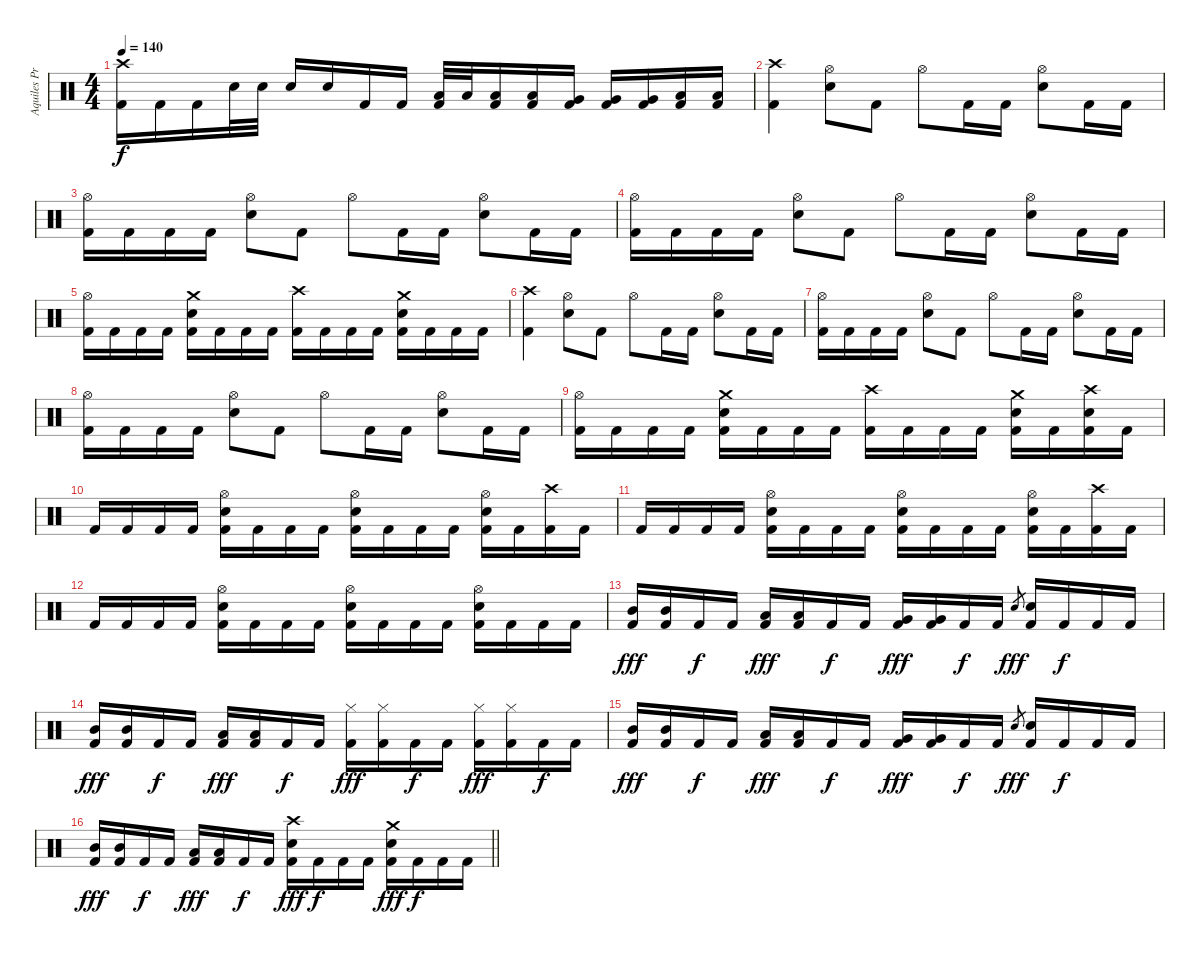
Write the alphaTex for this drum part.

\track ("Aquiles Priester" "Aquiles Pr") {instrument percussion}
\staff {score}
\articulation defaults
\ts (4 4)
\tempo 140
\clef neutral
\ks c
("Crash high (hit)" "Kick (hit) 2").16{dy f} "Kick (hit) 2".16 "Kick (hit) 2".16 "Electric Snare (hit)".32 "Electric Snare (hit)".32 "Electric Snare (hit)".16 "Electric Snare (hit)".16 "Kick (hit) 2".16 "Kick (hit) 2".16 ("Low Tom (hit)" "Kick (hit) 2").32 "Low Tom (hit)".32 ("Low Tom (hit)" "Kick (hit) 2").16 ("Low Tom (hit)" "Kick (hit) 2").16 ("Very Low Tom (hit)" "Kick (hit) 2").16 ("Very Low Tom (hit)" "Kick (hit) 2").16 ("Very Low Tom (hit)" "Kick (hit) 2").16 ("Low Floor Tom (hit)" "Kick (hit) 2").16 ("Low Floor Tom (hit)" "Kick (hit) 2").16 |
("Crash high (hit)" "Kick (hit) 2").4 ("Hi-Hat (open)" "Electric Snare (hit)").8 "Kick (hit) 2".8 "Hi-Hat (open)".8 "Kick (hit) 2".16 "Kick (hit) 2".16 ("Hi-Hat (open)" "Electric Snare (hit)").8 "Kick (hit) 2".16 "Kick (hit) 2".16 |
("Hi-Hat (open)" "Kick (hit) 2").16 "Kick (hit) 2".16 "Kick (hit) 2".16 "Kick (hit) 2".16 ("Hi-Hat (open)" "Electric Snare (hit)").8 "Kick (hit) 2".8 "Hi-Hat (open)".8 "Kick (hit) 2".16 "Kick (hit) 2".16 ("Hi-Hat (open)" "Electric Snare (hit)").8 "Kick (hit) 2".16 "Kick (hit) 2".16 |
("Hi-Hat (open)" "Kick (hit) 2").16 "Kick (hit) 2".16 "Kick (hit) 2".16 "Kick (hit) 2".16 ("Hi-Hat (open)" "Electric Snare (hit)").8 "Kick (hit) 2".8 "Hi-Hat (open)".8 "Kick (hit) 2".16 "Kick (hit) 2".16 ("Hi-Hat (open)" "Electric Snare (hit)").8 "Kick (hit) 2".16 "Kick (hit) 2".16 |
("Hi-Hat (open)" "Kick (hit) 2").16 "Kick (hit) 2".16 "Kick (hit) 2".16 "Kick (hit) 2".16 ("Crash medium (hit)" "Electric Snare (hit)" "Kick (hit) 2").16 "Kick (hit) 2".16 "Kick (hit) 2".16 "Kick (hit) 2".16 ("Crash high (hit)" "Kick (hit) 2").16 "Kick (hit) 2".16 "Kick (hit) 2".16 "Kick (hit) 2".16 ("Crash medium (hit)" "Electric Snare (hit)" "Kick (hit) 2").16 "Kick (hit) 2".16 "Kick (hit) 2".16 "Kick (hit) 2".16 |
("Crash high (hit)" "Kick (hit) 2").4 ("Hi-Hat (open)" "Electric Snare (hit)").8 "Kick (hit) 2".8 "Hi-Hat (open)".8 "Kick (hit) 2".16 "Kick (hit) 2".16 ("Hi-Hat (open)" "Electric Snare (hit)").8 "Kick (hit) 2".16 "Kick (hit) 2".16 |
("Hi-Hat (open)" "Kick (hit) 2").16 "Kick (hit) 2".16 "Kick (hit) 2".16 "Kick (hit) 2".16 ("Hi-Hat (open)" "Electric Snare (hit)").8 "Kick (hit) 2".8 "Hi-Hat (open)".8 "Kick (hit) 2".16 "Kick (hit) 2".16 ("Hi-Hat (open)" "Electric Snare (hit)").8 "Kick (hit) 2".16 "Kick (hit) 2".16 |
("Hi-Hat (open)" "Kick (hit) 2").16 "Kick (hit) 2".16 "Kick (hit) 2".16 "Kick (hit) 2".16 ("Hi-Hat (open)" "Electric Snare (hit)").8 "Kick (hit) 2".8 "Hi-Hat (open)".8 "Kick (hit) 2".16 "Kick (hit) 2".16 ("Hi-Hat (open)" "Electric Snare (hit)").8 "Kick (hit) 2".16 "Kick (hit) 2".16 |
("Hi-Hat (open)" "Kick (hit) 2").16 "Kick (hit) 2".16 "Kick (hit) 2".16 "Kick (hit) 2".16 ("Crash medium (hit)" "Electric Snare (hit)" "Kick (hit) 2").16 "Kick (hit) 2".16 "Kick (hit) 2".16 "Kick (hit) 2".16 ("Crash high (hit)" "Kick (hit) 2").16 "Kick (hit) 2".16 "Kick (hit) 2".16 "Kick (hit) 2".16 ("Crash medium (hit)" "Electric Snare (hit)" "Kick (hit) 2").16 "Kick (hit) 2".16 ("Crash high (hit)" "Electric Snare (hit)" "Kick (hit) 2").16 "Kick (hit) 2".16 |
"Kick (hit) 2".16 "Kick (hit) 2".16 "Kick (hit) 2".16 "Kick (hit) 2".16 ("Hi-Hat (open)" "Electric Snare (hit)" "Kick (hit) 2").16 "Kick (hit) 2".16 "Kick (hit) 2".16 "Kick (hit) 2".16 ("Hi-Hat (open)" "Electric Snare (hit)" "Kick (hit) 2").16 "Kick (hit) 2".16 "Kick (hit) 2".16 "Kick (hit) 2".16 ("Hi-Hat (open)" "Electric Snare (hit)" "Kick (hit) 2").16 "Kick (hit) 2".16 ("Crash high (hit)" "Kick (hit) 2").16 "Kick (hit) 2".16 |
"Kick (hit) 2".16 "Kick (hit) 2".16 "Kick (hit) 2".16 "Kick (hit) 2".16 ("Hi-Hat (open)" "Electric Snare (hit)" "Kick (hit) 2").16 "Kick (hit) 2".16 "Kick (hit) 2".16 "Kick (hit) 2".16 ("Hi-Hat (open)" "Electric Snare (hit)" "Kick (hit) 2").16 "Kick (hit) 2".16 "Kick (hit) 2".16 "Kick (hit) 2".16 ("Hi-Hat (open)" "Electric Snare (hit)" "Kick (hit) 2").16 "Kick (hit) 2".16 ("Crash high (hit)" "Kick (hit) 2").16 "Kick (hit) 2".16 |
"Kick (hit) 2".16 "Kick (hit) 2".16 "Kick (hit) 2".16 "Kick (hit) 2".16 ("Hi-Hat (open)" "Electric Snare (hit)" "Kick (hit) 2").16 "Kick (hit) 2".16 "Kick (hit) 2".16 "Kick (hit) 2".16 ("Hi-Hat (open)" "Electric Snare (hit)" "Kick (hit) 2").16 "Kick (hit) 2".16 "Kick (hit) 2".16 "Kick (hit) 2".16 ("Hi-Hat (open)" "Electric Snare (hit)" "Kick (hit) 2").16 "Kick (hit) 2".16 "Kick (hit) 2".16 "Kick (hit) 2".16 |
("Mid Tom (hit)" "Kick (hit) 2").16{dy fff} ("Mid Tom (hit)" "Kick (hit) 2").16 "Kick (hit) 2".16{dy f} "Kick (hit) 2".16 ("Low Tom (hit)" "Kick (hit) 2").16{dy fff} ("Low Tom (hit)" "Kick (hit) 2").16 "Kick (hit) 2".16{dy f} "Kick (hit) 2".16 ("Very Low Tom (hit)" "Kick (hit) 2").16{dy fff} ("Very Low Tom (hit)" "Kick (hit) 2").16 "Kick (hit) 2".16{dy f} "Kick (hit) 2".16 "Electric Snare (hit)".8{gr dy fff} ("Electric Snare (hit)" "Kick (hit) 2").16 "Kick (hit) 2".16{dy f} "Kick (hit) 2".16 "Kick (hit) 2".16 |
("Mid Tom (hit)" "Kick (hit) 2").16{dy fff} ("Mid Tom (hit)" "Kick (hit) 2").16 "Kick (hit) 2".16{dy f} "Kick (hit) 2".16 ("Low Tom (hit)" "Kick (hit) 2").16{dy fff} ("Low Tom (hit)" "Kick (hit) 2").16 "Kick (hit) 2".16{dy f} "Kick (hit) 2".16 ("Hi-Hat (closed)" "Kick (hit) 2").16{dy fff} ("Hi-Hat (closed)" "Kick (hit) 2").16 "Kick (hit) 2".16{dy f} "Kick (hit) 2".16 ("Hi-Hat (closed)" "Kick (hit) 2").16{dy fff} ("Hi-Hat (closed)" "Kick (hit) 2").16 "Kick (hit) 2".16{dy f} "Kick (hit) 2".16 |
("Mid Tom (hit)" "Kick (hit) 2").16{dy fff} ("Mid Tom (hit)" "Kick (hit) 2").16 "Kick (hit) 2".16{dy f} "Kick (hit) 2".16 ("Low Tom (hit)" "Kick (hit) 2").16{dy fff} ("Low Tom (hit)" "Kick (hit) 2").16 "Kick (hit) 2".16{dy f} "Kick (hit) 2".16 ("Very Low Tom (hit)" "Kick (hit) 2").16{dy fff} ("Very Low Tom (hit)" "Kick (hit) 2").16 "Kick (hit) 2".16{dy f} "Kick (hit) 2".16 "Electric Snare (hit)".8{gr dy fff} ("Electric Snare (hit)" "Kick (hit) 2").16 "Kick (hit) 2".16{dy f} "Kick (hit) 2".16 "Kick (hit) 2".16 |
\barLineRight lightlight
("Mid Tom (hit)" "Kick (hit) 2").16{dy fff} ("Mid Tom (hit)" "Kick (hit) 2").16 "Kick (hit) 2".16{dy f} "Kick (hit) 2".16 ("Low Tom (hit)" "Kick (hit) 2").16{dy fff} ("Low Tom (hit)" "Kick (hit) 2").16 "Kick (hit) 2".16{dy f} "Kick (hit) 2".16 ("Crash high (hit)" "Electric Snare (hit)" "Kick (hit) 2").16{dy fff} "Kick (hit) 2".16{dy f} "Kick (hit) 2".16 "Kick (hit) 2".16 ("Crash medium (hit)" "Electric Snare (hit)" "Kick (hit) 2").16{dy fff} "Kick (hit) 2".16{dy f} "Kick (hit) 2".16 "Kick (hit) 2".16
